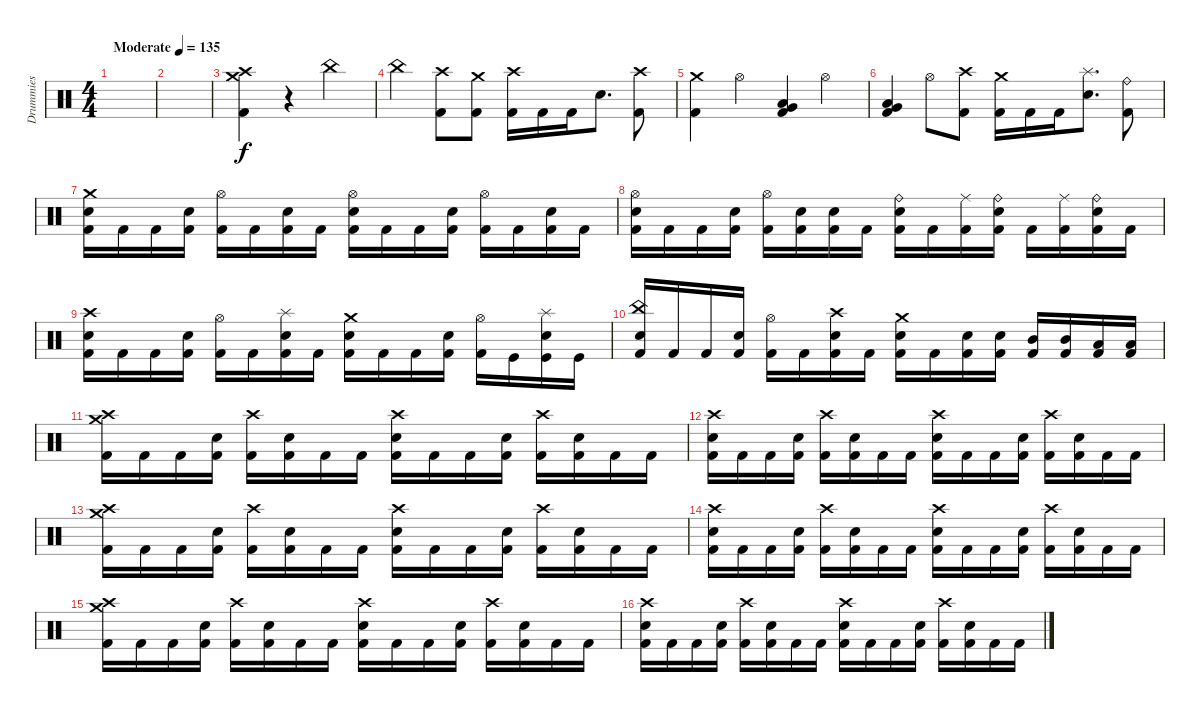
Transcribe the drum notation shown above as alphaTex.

\track ("Drummies" "Drummies") {instrument percussion}
\staff {score}
\articulation defaults
\ts (4 4)
\tempo (135 "Moderate")
\clef neutral
\ks c
|
|
("Crash medium (hit)" "Crash high (hit)" "Kick (hit) 2").4 r.4 "China (hit)".4 |
"China (hit)".4 ("Crash high (hit)" "Kick (hit) 2").8 ("Crash medium (hit)" "Kick (hit) 2").8 ("Crash high (hit)" "Kick (hit) 2").16 "Kick (hit) 2".16 "Kick (hit) 2".16 "Electric Snare (hit)".8{d} ("Crash high (hit)" "Kick (hit) 2").8 |
("Crash medium (hit)" "Kick (hit) 2").4 "Hi-Hat (open)".4 ("Very Low Tom (hit)" "Low Tom (hit)" "Kick (hit) 2").4 "Hi-Hat (open)".4 |
("Very Low Tom (hit)" "Low Tom (hit)" "Kick (hit) 2").4 "Hi-Hat (open)".8 ("Crash high (hit)" "Kick (hit) 2").8 ("Crash medium (hit)" "Kick (hit) 2").16 "Kick (hit) 2".16 "Kick (hit) 2".16 ("Splash (hit)" "Electric Snare (hit)").8{d} ("Ride (bell)" "Kick (hit) 2").8 |
("Crash medium (hit)" "Electric Snare (hit)" "Kick (hit) 2").16 "Kick (hit) 2".16 "Kick (hit) 2".16 ("Electric Snare (hit)" "Kick (hit) 2").16 ("Hi-Hat (open)" "Kick (hit) 2").16 "Kick (hit) 2".16 ("Electric Snare (hit)" "Kick (hit) 2").16 "Kick (hit) 2".16 ("Hi-Hat (open)" "Electric Snare (hit)" "Kick (hit) 2").16 "Kick (hit) 2".16 "Kick (hit) 2".16 ("Electric Snare (hit)" "Kick (hit) 2").16 ("Hi-Hat (open)" "Kick (hit) 2").16 "Kick (hit) 2".16 ("Electric Snare (hit)" "Kick (hit) 2").16 "Kick (hit) 2".16 |
("Hi-Hat (open)" "Electric Snare (hit)" "Kick (hit) 2").16 "Kick (hit) 2".16 "Kick (hit) 2".16 ("Electric Snare (hit)" "Kick (hit) 2").16 ("Hi-Hat (open)" "Kick (hit) 2").16 ("Electric Snare (hit)" "Kick (hit) 2").16 ("Electric Snare (hit)" "Kick (hit) 2").16 "Kick (hit) 2".16 ("Ride (bell)" "Electric Snare (hit)" "Kick (hit) 2").16 "Kick (hit) 2".16 ("Ride (middle)" "Kick (hit) 2").16 ("Ride (bell)" "Electric Snare (hit)" "Kick (hit) 2").16 "Kick (hit) 2".16 ("Ride (middle)" "Kick (hit) 2").16 ("Ride (bell)" "Electric Snare (hit)" "Kick (hit) 2").16 "Kick (hit) 2".16 |
("Crash high (hit)" "Electric Snare (hit)" "Kick (hit) 2").16 "Kick (hit) 2".16 "Kick (hit) 2".16 ("Electric Snare (hit)" "Kick (hit) 2").16 ("Hi-Hat (open)" "Kick (hit) 2").16 "Kick (hit) 2".16 ("Splash (hit)" "Electric Snare (hit)" "Kick (hit) 2").16 "Kick (hit) 2".16 ("Crash medium (hit)" "Electric Snare (hit)" "Kick (hit) 2").16 "Kick (hit) 2".16 "Kick (hit) 2".16 ("Electric Snare (hit)" "Kick (hit) 2").16 ("Hi-Hat (open)" "Kick (hit) 2").16 "Kick (hit)".16 ("Splash (hit)" "Electric Snare (hit)" "Kick (hit)").16 "Kick (hit)".16 |
("China (hit)" "Electric Snare (hit)" "Kick (hit) 2").16 "Kick (hit) 2".16 "Kick (hit) 2".16 ("Electric Snare (hit)" "Kick (hit) 2").16 ("Hi-Hat (open)" "Kick (hit) 2").16 "Kick (hit) 2".16 ("Crash high (hit)" "Electric Snare (hit)" "Kick (hit) 2").16 "Kick (hit) 2".16 ("Crash medium (hit)" "Electric Snare (hit)" "Kick (hit) 2").16 "Kick (hit) 2".16 ("Electric Snare (hit)" "Kick (hit) 2").16 ("Electric Snare (hit)" "Kick (hit) 2").16 ("Mid Tom (hit)" "Kick (hit) 2").16 ("Mid Tom (hit)" "Kick (hit) 2").16 ("Low Tom (hit)" "Kick (hit) 2").16 ("Low Tom (hit)" "Kick (hit) 2").16 |
("Crash high (hit)" "Crash medium (hit)" "Kick (hit) 2").16 "Kick (hit) 2".16 "Kick (hit) 2".16 ("Electric Snare (hit)" "Kick (hit) 2").16 ("Crash high (hit)" "Kick (hit) 2").16 ("Electric Snare (hit)" "Kick (hit) 2").16 "Kick (hit) 2".16 "Kick (hit) 2".16 ("Crash high (hit)" "Electric Snare (hit)" "Kick (hit) 2").16 "Kick (hit) 2".16 "Kick (hit) 2".16 ("Electric Snare (hit)" "Kick (hit) 2").16 ("Crash high (hit)" "Kick (hit) 2").16 ("Electric Snare (hit)" "Kick (hit) 2").16 "Kick (hit) 2".16 "Kick (hit) 2".16 |
("Crash high (hit)" "Electric Snare (hit)" "Kick (hit) 2").16 "Kick (hit) 2".16 "Kick (hit) 2".16 ("Electric Snare (hit)" "Kick (hit) 2").16 ("Crash high (hit)" "Kick (hit) 2").16 ("Electric Snare (hit)" "Kick (hit) 2").16 "Kick (hit) 2".16 "Kick (hit) 2".16 ("Crash high (hit)" "Electric Snare (hit)" "Kick (hit) 2").16 "Kick (hit) 2".16 "Kick (hit) 2".16 ("Electric Snare (hit)" "Kick (hit) 2").16 ("Crash high (hit)" "Kick (hit) 2").16 ("Electric Snare (hit)" "Kick (hit) 2").16 "Kick (hit) 2".16 "Kick (hit) 2".16 |
("Crash high (hit)" "Crash medium (hit)" "Kick (hit) 2").16 "Kick (hit) 2".16 "Kick (hit) 2".16 ("Electric Snare (hit)" "Kick (hit) 2").16 ("Crash high (hit)" "Kick (hit) 2").16 ("Electric Snare (hit)" "Kick (hit) 2").16 "Kick (hit) 2".16 "Kick (hit) 2".16 ("Crash high (hit)" "Electric Snare (hit)" "Kick (hit) 2").16 "Kick (hit) 2".16 "Kick (hit) 2".16 ("Electric Snare (hit)" "Kick (hit) 2").16 ("Crash high (hit)" "Kick (hit) 2").16 ("Electric Snare (hit)" "Kick (hit) 2").16 "Kick (hit) 2".16 "Kick (hit) 2".16 |
("Crash high (hit)" "Electric Snare (hit)" "Kick (hit) 2").16 "Kick (hit) 2".16 "Kick (hit) 2".16 ("Electric Snare (hit)" "Kick (hit) 2").16 ("Crash high (hit)" "Kick (hit) 2").16 ("Electric Snare (hit)" "Kick (hit) 2").16 "Kick (hit) 2".16 "Kick (hit) 2".16 ("Crash high (hit)" "Electric Snare (hit)" "Kick (hit) 2").16 "Kick (hit) 2".16 "Kick (hit) 2".16 ("Electric Snare (hit)" "Kick (hit) 2").16 ("Crash high (hit)" "Kick (hit) 2").16 ("Electric Snare (hit)" "Kick (hit) 2").16 "Kick (hit) 2".16 "Kick (hit) 2".16 |
("Crash high (hit)" "Crash medium (hit)" "Kick (hit) 2").16 "Kick (hit) 2".16 "Kick (hit) 2".16 ("Electric Snare (hit)" "Kick (hit) 2").16 ("Crash high (hit)" "Kick (hit) 2").16 ("Electric Snare (hit)" "Kick (hit) 2").16 "Kick (hit) 2".16 "Kick (hit) 2".16 ("Crash high (hit)" "Electric Snare (hit)" "Kick (hit) 2").16 "Kick (hit) 2".16 "Kick (hit) 2".16 ("Electric Snare (hit)" "Kick (hit) 2").16 ("Crash high (hit)" "Kick (hit) 2").16 ("Electric Snare (hit)" "Kick (hit) 2").16 "Kick (hit) 2".16 "Kick (hit) 2".16 |
("Crash high (hit)" "Electric Snare (hit)" "Kick (hit) 2").16 "Kick (hit) 2".16 "Kick (hit) 2".16 ("Electric Snare (hit)" "Kick (hit) 2").16 ("Crash high (hit)" "Kick (hit) 2").16 ("Electric Snare (hit)" "Kick (hit) 2").16 "Kick (hit) 2".16 "Kick (hit) 2".16 ("Crash high (hit)" "Electric Snare (hit)" "Kick (hit) 2").16 "Kick (hit) 2".16 "Kick (hit) 2".16 ("Electric Snare (hit)" "Kick (hit) 2").16 ("Crash high (hit)" "Kick (hit) 2").16 ("Electric Snare (hit)" "Kick (hit) 2").16 "Kick (hit) 2".16 "Kick (hit) 2".16
